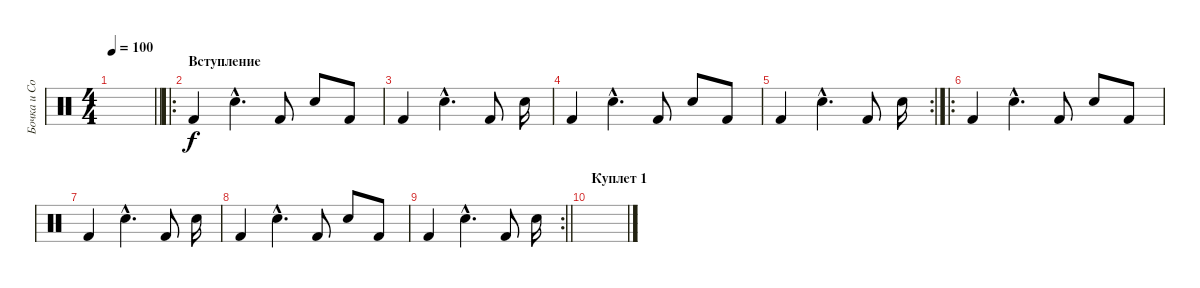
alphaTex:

\track ("Бочка и Сольник" "Бочка и Со") {instrument percussion}
\staff {score}
\articulation defaults
\ts (4 4)
\tempo 100
\clef neutral
\barLineRight lightlight
\ks c
|
\ro
\section ("" "Вступление")
"Kick (hit) 2".4 "Electric Snare (hit)"{hac}.4{d} "Kick (hit) 2".8 "Electric Snare (hit)".8 "Kick (hit) 2".8 |
"Kick (hit) 2".4 "Electric Snare (hit)"{hac}.4{d} "Kick (hit) 2".8 "Electric Snare (hit)".16 |
"Kick (hit) 2".4 "Electric Snare (hit)"{hac}.4{d} "Kick (hit) 2".8 "Electric Snare (hit)".8 "Kick (hit) 2".8 |
\rc 2 "Kick (hit) 2".4 "Electric Snare (hit)"{hac}.4{d} "Kick (hit) 2".8 "Electric Snare (hit)".16
|
\ro "Kick (hit) 2".4 "Electric Snare (hit)"{hac}.4{d} "Kick (hit) 2".8 "Electric Snare (hit)".8 "Kick (hit) 2".8
|
"Kick (hit) 2".4 "Electric Snare (hit)"{hac}.4{d} "Kick (hit) 2".8 "Electric Snare (hit)".16 |
"Kick (hit) 2".4 "Electric Snare (hit)"{hac}.4{d} "Kick (hit) 2".8 "Electric Snare (hit)".8 "Kick (hit) 2".8 |
\rc 2
\barLineRight lightlight "Kick (hit) 2".4 "Electric Snare (hit)"{hac}.4{d} "Kick (hit) 2".8 "Electric Snare (hit)".16
|
\section ("" "Куплет 1")
